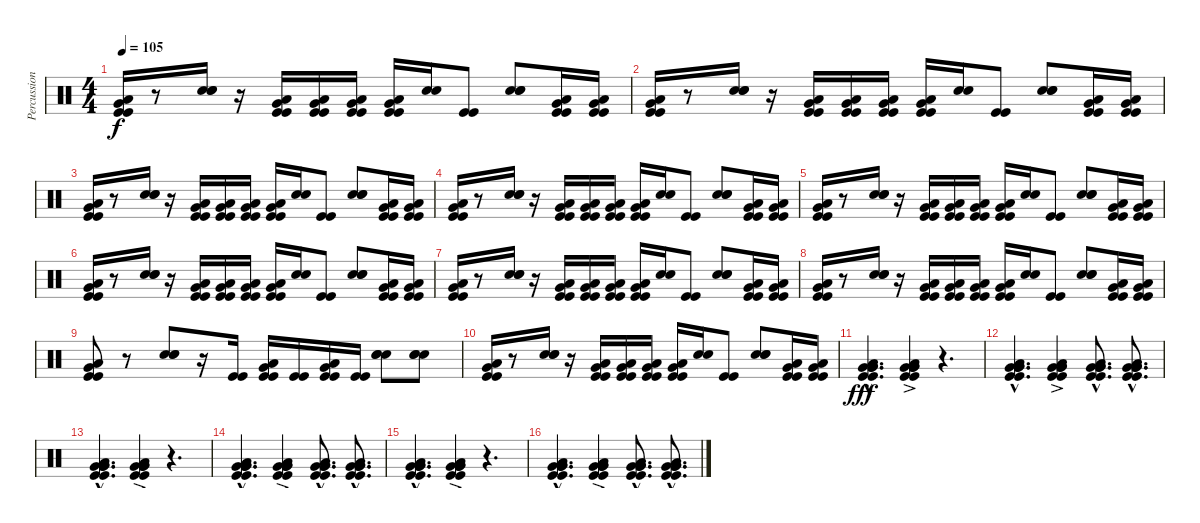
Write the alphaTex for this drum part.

\track ("Percussions" "Percussion") {instrument percussion}
\staff {score}
\articulation defaults
\ts (4 4)
\tempo 105
\clef neutral
\ks c
("Very Low Tom (hit)" "Low Floor Tom (hit)" "Kick (hit)" "Kick (hit)").16{dy f volume 13} r.8 ("Electric Snare (hit)" "Electric Snare (hit)" "Electric Snare (hit)").16 r.16 ("Very Low Tom (hit)" "Low Floor Tom (hit)" "Kick (hit)" "Kick (hit)").16 ("Very Low Tom (hit)" "Low Floor Tom (hit)" "Kick (hit)" "Kick (hit)").16 ("Very Low Tom (hit)" "Low Floor Tom (hit)" "Kick (hit)" "Kick (hit)").16 ("Very Low Tom (hit)" "Low Floor Tom (hit)" "Kick (hit)" "Kick (hit)").16 ("Electric Snare (hit)" "Electric Snare (hit)").16 ("Kick (hit)" "Kick (hit)").8 ("Electric Snare (hit)" "Electric Snare (hit)" "Electric Snare (hit)").8 ("Very Low Tom (hit)" "Low Floor Tom (hit)" "Kick (hit)" "Kick (hit)").16 ("Very Low Tom (hit)" "Low Floor Tom (hit)" "Kick (hit)" "Kick (hit)").16 |
("Very Low Tom (hit)" "Low Floor Tom (hit)" "Kick (hit)" "Kick (hit)").16{volume 13} r.8 ("Electric Snare (hit)" "Electric Snare (hit)" "Electric Snare (hit)").16 r.16 ("Very Low Tom (hit)" "Low Floor Tom (hit)" "Kick (hit)" "Kick (hit)").16 ("Very Low Tom (hit)" "Low Floor Tom (hit)" "Kick (hit)" "Kick (hit)").16 ("Very Low Tom (hit)" "Low Floor Tom (hit)" "Kick (hit)" "Kick (hit)").16 ("Very Low Tom (hit)" "Low Floor Tom (hit)" "Kick (hit)" "Kick (hit)").16 ("Electric Snare (hit)" "Electric Snare (hit)").16 ("Kick (hit)" "Kick (hit)").8 ("Electric Snare (hit)" "Electric Snare (hit)" "Electric Snare (hit)").8 ("Very Low Tom (hit)" "Low Floor Tom (hit)" "Kick (hit)" "Kick (hit)").16 ("Very Low Tom (hit)" "Low Floor Tom (hit)" "Kick (hit)" "Kick (hit)").16 |
("Very Low Tom (hit)" "Low Floor Tom (hit)" "Kick (hit)" "Kick (hit)").16{volume 13} r.8 ("Electric Snare (hit)" "Electric Snare (hit)" "Electric Snare (hit)").16 r.16 ("Very Low Tom (hit)" "Low Floor Tom (hit)" "Kick (hit)" "Kick (hit)").16 ("Very Low Tom (hit)" "Low Floor Tom (hit)" "Kick (hit)" "Kick (hit)").16 ("Very Low Tom (hit)" "Low Floor Tom (hit)" "Kick (hit)" "Kick (hit)").16 ("Very Low Tom (hit)" "Low Floor Tom (hit)" "Kick (hit)" "Kick (hit)").16 ("Electric Snare (hit)" "Electric Snare (hit)").16 ("Kick (hit)" "Kick (hit)").8 ("Electric Snare (hit)" "Electric Snare (hit)" "Electric Snare (hit)").8 ("Very Low Tom (hit)" "Low Floor Tom (hit)" "Kick (hit)" "Kick (hit)").16 ("Very Low Tom (hit)" "Low Floor Tom (hit)" "Kick (hit)" "Kick (hit)").16 |
("Very Low Tom (hit)" "Low Floor Tom (hit)" "Kick (hit)" "Kick (hit)").16{volume 13} r.8 ("Electric Snare (hit)" "Electric Snare (hit)" "Electric Snare (hit)").16 r.16 ("Very Low Tom (hit)" "Low Floor Tom (hit)" "Kick (hit)" "Kick (hit)").16 ("Very Low Tom (hit)" "Low Floor Tom (hit)" "Kick (hit)" "Kick (hit)").16 ("Very Low Tom (hit)" "Low Floor Tom (hit)" "Kick (hit)" "Kick (hit)").16 ("Very Low Tom (hit)" "Low Floor Tom (hit)" "Kick (hit)" "Kick (hit)").16 ("Electric Snare (hit)" "Electric Snare (hit)").16 ("Kick (hit)" "Kick (hit)").8 ("Electric Snare (hit)" "Electric Snare (hit)" "Electric Snare (hit)").8 ("Very Low Tom (hit)" "Low Floor Tom (hit)" "Kick (hit)" "Kick (hit)").16 ("Very Low Tom (hit)" "Low Floor Tom (hit)" "Kick (hit)" "Kick (hit)").16 |
("Very Low Tom (hit)" "Low Floor Tom (hit)" "Kick (hit)" "Kick (hit)").16{volume 13} r.8 ("Electric Snare (hit)" "Electric Snare (hit)" "Electric Snare (hit)").16 r.16 ("Very Low Tom (hit)" "Low Floor Tom (hit)" "Kick (hit)" "Kick (hit)").16 ("Very Low Tom (hit)" "Low Floor Tom (hit)" "Kick (hit)" "Kick (hit)").16 ("Very Low Tom (hit)" "Low Floor Tom (hit)" "Kick (hit)" "Kick (hit)").16 ("Very Low Tom (hit)" "Low Floor Tom (hit)" "Kick (hit)" "Kick (hit)").16 ("Electric Snare (hit)" "Electric Snare (hit)").16 ("Kick (hit)" "Kick (hit)").8 ("Electric Snare (hit)" "Electric Snare (hit)" "Electric Snare (hit)").8 ("Very Low Tom (hit)" "Low Floor Tom (hit)" "Kick (hit)" "Kick (hit)").16 ("Very Low Tom (hit)" "Low Floor Tom (hit)" "Kick (hit)" "Kick (hit)").16 |
("Very Low Tom (hit)" "Low Floor Tom (hit)" "Kick (hit)" "Kick (hit)").16{volume 13} r.8 ("Electric Snare (hit)" "Electric Snare (hit)" "Electric Snare (hit)").16 r.16 ("Very Low Tom (hit)" "Low Floor Tom (hit)" "Kick (hit)" "Kick (hit)").16 ("Very Low Tom (hit)" "Low Floor Tom (hit)" "Kick (hit)" "Kick (hit)").16 ("Very Low Tom (hit)" "Low Floor Tom (hit)" "Kick (hit)" "Kick (hit)").16 ("Very Low Tom (hit)" "Low Floor Tom (hit)" "Kick (hit)" "Kick (hit)").16 ("Electric Snare (hit)" "Electric Snare (hit)").16 ("Kick (hit)" "Kick (hit)").8 ("Electric Snare (hit)" "Electric Snare (hit)" "Electric Snare (hit)").8 ("Very Low Tom (hit)" "Low Floor Tom (hit)" "Kick (hit)" "Kick (hit)").16 ("Very Low Tom (hit)" "Low Floor Tom (hit)" "Kick (hit)" "Kick (hit)").16 |
("Very Low Tom (hit)" "Low Floor Tom (hit)" "Kick (hit)" "Kick (hit)").16{volume 13} r.8 ("Electric Snare (hit)" "Electric Snare (hit)" "Electric Snare (hit)").16 r.16 ("Very Low Tom (hit)" "Low Floor Tom (hit)" "Kick (hit)" "Kick (hit)").16 ("Very Low Tom (hit)" "Low Floor Tom (hit)" "Kick (hit)" "Kick (hit)").16 ("Very Low Tom (hit)" "Low Floor Tom (hit)" "Kick (hit)" "Kick (hit)").16 ("Very Low Tom (hit)" "Low Floor Tom (hit)" "Kick (hit)" "Kick (hit)").16 ("Electric Snare (hit)" "Electric Snare (hit)").16 ("Kick (hit)" "Kick (hit)").8 ("Electric Snare (hit)" "Electric Snare (hit)" "Electric Snare (hit)").8 ("Very Low Tom (hit)" "Low Floor Tom (hit)" "Kick (hit)" "Kick (hit)").16 ("Very Low Tom (hit)" "Low Floor Tom (hit)" "Kick (hit)" "Kick (hit)").16 |
("Very Low Tom (hit)" "Low Floor Tom (hit)" "Kick (hit)" "Kick (hit)").16{volume 13} r.8 ("Electric Snare (hit)" "Electric Snare (hit)" "Electric Snare (hit)").16 r.16 ("Very Low Tom (hit)" "Low Floor Tom (hit)" "Kick (hit)" "Kick (hit)").16 ("Very Low Tom (hit)" "Low Floor Tom (hit)" "Kick (hit)" "Kick (hit)").16 ("Very Low Tom (hit)" "Low Floor Tom (hit)" "Kick (hit)" "Kick (hit)").16 ("Very Low Tom (hit)" "Low Floor Tom (hit)" "Kick (hit)" "Kick (hit)").16 ("Electric Snare (hit)" "Electric Snare (hit)").16 ("Kick (hit)" "Kick (hit)").8 ("Electric Snare (hit)" "Electric Snare (hit)" "Electric Snare (hit)").8 ("Very Low Tom (hit)" "Low Floor Tom (hit)" "Kick (hit)" "Kick (hit)").16 ("Very Low Tom (hit)" "Low Floor Tom (hit)" "Kick (hit)" "Kick (hit)").16 |
("Very Low Tom (hit)" "Low Floor Tom (hit)" "Kick (hit)" "Kick (hit)").8{volume 13} r.8 ("Electric Snare (hit)" "Electric Snare (hit)" "Electric Snare (hit)").8 r.16 ("Kick (hit)" "Kick (hit)").16 ("Very Low Tom (hit)" "Low Floor Tom (hit)" "Kick (hit)" "Kick (hit)").16 ("Kick (hit)" "Kick (hit)").16 ("Very Low Tom (hit)" "Low Floor Tom (hit)" "Kick (hit)" "Kick (hit)").16 ("Kick (hit)" "Kick (hit)").16 ("Electric Snare (hit)" "Electric Snare (hit)" "Electric Snare (hit)").8{volume 13} ("Electric Snare (hit)" "Electric Snare (hit)" "Electric Snare (hit)").8 |
("Very Low Tom (hit)" "Low Floor Tom (hit)" "Kick (hit)" "Kick (hit)").16{volume 13} r.8 ("Electric Snare (hit)" "Electric Snare (hit)" "Electric Snare (hit)").16 r.16 ("Very Low Tom (hit)" "Low Floor Tom (hit)" "Kick (hit)" "Kick (hit)").16 ("Very Low Tom (hit)" "Low Floor Tom (hit)" "Kick (hit)" "Kick (hit)").16 ("Very Low Tom (hit)" "Low Floor Tom (hit)" "Kick (hit)" "Kick (hit)").16 ("Very Low Tom (hit)" "Low Floor Tom (hit)" "Kick (hit)" "Kick (hit)").16 ("Electric Snare (hit)" "Electric Snare (hit)").16 ("Kick (hit)" "Kick (hit)").8 ("Electric Snare (hit)" "Electric Snare (hit)" "Electric Snare (hit)").8 ("Very Low Tom (hit)" "Low Floor Tom (hit)" "Kick (hit)" "Kick (hit)").16 ("Very Low Tom (hit)" "Low Floor Tom (hit)" "Kick (hit)" "Kick (hit)").16 |
("Very Low Tom (hit)"{hac} "Very Low Tom (hit)"{hac} "Very Low Tom (hit)"{hac} "Kick (hit)"{hac} "Low Floor Tom (hit)"{hac} "Kick (hit)"{hac}).4{d dy fff volume 16} ("Very Low Tom (hit)"{ac} "Very Low Tom (hit)"{ac} "Very Low Tom (hit)"{ac} "Kick (hit)"{ac} "Low Floor Tom (hit)"{ac} "Kick (hit)"{ac}).4{volume 16} r.4{d} |
("Very Low Tom (hit)"{hac} "Very Low Tom (hit)"{hac} "Very Low Tom (hit)"{hac} "Kick (hit)"{hac} "Low Floor Tom (hit)"{hac} "Kick (hit)"{hac}).4{d volume 16} ("Very Low Tom (hit)"{ac} "Very Low Tom (hit)"{ac} "Very Low Tom (hit)"{ac} "Kick (hit)"{ac} "Low Floor Tom (hit)"{ac} "Kick (hit)"{ac}).4{volume 16} ("Very Low Tom (hit)"{hac} "Very Low Tom (hit)"{hac} "Very Low Tom (hit)"{hac} "Kick (hit)"{hac} "Low Floor Tom (hit)"{hac} "Kick (hit)"{hac}).8{d volume 16} ("Very Low Tom (hit)"{hac} "Very Low Tom (hit)"{hac} "Very Low Tom (hit)"{hac} "Kick (hit)"{hac} "Low Floor Tom (hit)"{hac} "Kick (hit)"{hac}).8{d volume 16} |
("Very Low Tom (hit)"{hac} "Very Low Tom (hit)"{hac} "Very Low Tom (hit)"{hac} "Kick (hit)"{hac} "Low Floor Tom (hit)"{hac} "Kick (hit)"{hac}).4{d volume 16} ("Very Low Tom (hit)"{ac} "Very Low Tom (hit)"{ac} "Very Low Tom (hit)"{ac} "Kick (hit)"{ac} "Low Floor Tom (hit)"{ac} "Kick (hit)"{ac}).4{volume 16} r.4{d} |
("Very Low Tom (hit)"{hac} "Very Low Tom (hit)"{hac} "Very Low Tom (hit)"{hac} "Kick (hit)"{hac} "Low Floor Tom (hit)"{hac} "Kick (hit)"{hac}).4{d volume 16} ("Very Low Tom (hit)"{ac} "Very Low Tom (hit)"{ac} "Very Low Tom (hit)"{ac} "Kick (hit)"{ac} "Low Floor Tom (hit)"{ac} "Kick (hit)"{ac}).4{volume 16} ("Very Low Tom (hit)"{hac} "Very Low Tom (hit)"{hac} "Very Low Tom (hit)"{hac} "Kick (hit)"{hac} "Low Floor Tom (hit)"{hac} "Kick (hit)"{hac}).8{d volume 16} ("Very Low Tom (hit)"{hac} "Very Low Tom (hit)"{hac} "Very Low Tom (hit)"{hac} "Kick (hit)"{hac} "Low Floor Tom (hit)"{hac} "Kick (hit)"{hac}).8{d volume 16} |
("Very Low Tom (hit)"{hac} "Very Low Tom (hit)"{hac} "Very Low Tom (hit)"{hac} "Kick (hit)"{hac} "Low Floor Tom (hit)"{hac} "Kick (hit)"{hac}).4{d volume 16} ("Very Low Tom (hit)"{ac} "Very Low Tom (hit)"{ac} "Very Low Tom (hit)"{ac} "Kick (hit)"{ac} "Low Floor Tom (hit)"{ac} "Kick (hit)"{ac}).4{volume 16} r.4{d} |
("Very Low Tom (hit)"{hac} "Very Low Tom (hit)"{hac} "Very Low Tom (hit)"{hac} "Kick (hit)"{hac} "Low Floor Tom (hit)"{hac} "Kick (hit)"{hac}).4{d volume 16} ("Very Low Tom (hit)"{ac} "Very Low Tom (hit)"{ac} "Very Low Tom (hit)"{ac} "Kick (hit)"{ac} "Low Floor Tom (hit)"{ac} "Kick (hit)"{ac}).4{volume 16} ("Very Low Tom (hit)"{hac} "Very Low Tom (hit)"{hac} "Very Low Tom (hit)"{hac} "Kick (hit)"{hac} "Low Floor Tom (hit)"{hac} "Kick (hit)"{hac}).8{d volume 16} ("Very Low Tom (hit)"{hac} "Very Low Tom (hit)"{hac} "Very Low Tom (hit)"{hac} "Kick (hit)"{hac} "Low Floor Tom (hit)"{hac} "Kick (hit)"{hac}).8{d volume 16}
